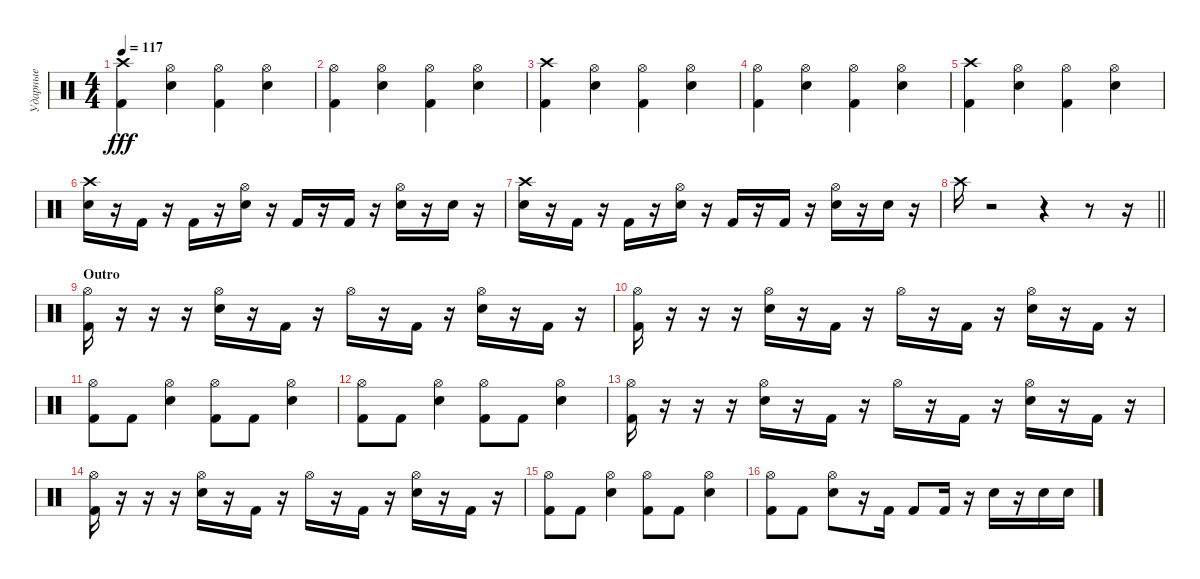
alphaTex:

\track ("Ударные" "Ударные") {instrument percussion}
\staff {score}
\articulation defaults
\ts (4 4)
\tempo 117
\clef neutral
\ks c
("Crash high (hit)" "Kick (hit) 2").4{dy fff} ("Hi-Hat (open)" "Snare (hit) 2").4 ("Hi-Hat (open)" "Kick (hit) 2").4 ("Hi-Hat (open)" "Snare (hit) 2").4 |
("Hi-Hat (open)" "Kick (hit) 2").4 ("Hi-Hat (open)" "Snare (hit) 2").4 ("Hi-Hat (open)" "Kick (hit) 2").4 ("Hi-Hat (open)" "Snare (hit) 2").4 |
("Crash high (hit)" "Kick (hit) 2").4 ("Hi-Hat (open)" "Snare (hit) 2").4 ("Hi-Hat (open)" "Kick (hit) 2").4 ("Hi-Hat (open)" "Snare (hit) 2").4 |
("Hi-Hat (open)" "Kick (hit) 2").4 ("Hi-Hat (open)" "Snare (hit) 2").4 ("Hi-Hat (open)" "Kick (hit) 2").4 ("Hi-Hat (open)" "Snare (hit) 2").4 |
("Crash high (hit)" "Kick (hit) 2").4 ("Hi-Hat (open)" "Snare (hit) 2").4 ("Hi-Hat (open)" "Kick (hit) 2").4 ("Hi-Hat (open)" "Snare (hit) 2").4 |
("Snare (hit) 2" "Crash high (hit)").16 r.16 "Kick (hit) 2".16 r.16 "Kick (hit) 2".16 r.16 ("Snare (hit) 2" "Hi-Hat (open)").16 r.16 "Kick (hit) 2".16 r.16 "Kick (hit) 2".16 r.16 ("Snare (hit) 2" "Hi-Hat (open)").16 r.16 "Snare (hit) 2".16 r.16 |
("Snare (hit) 2" "Crash high (hit)").16 r.16 "Kick (hit) 2".16 r.16 "Kick (hit) 2".16 r.16 ("Snare (hit) 2" "Hi-Hat (open)").16 r.16 "Kick (hit) 2".16 r.16 "Kick (hit) 2".16 r.16 ("Snare (hit) 2" "Hi-Hat (open)").16 r.16 "Snare (hit) 2".16 r.16 |
\barLineRight lightlight "Crash high (hit)".16
r.2 r.4 r.8 r.16 |
\section ("" "Outro")
("Kick (hit) 2" "Hi-Hat (open)").16 r.16 r.16 r.16 ("Snare (hit) 2" "Hi-Hat (open)").16 r.16 "Kick (hit) 2".16 r.16 "Hi-Hat (open)".16 r.16 "Kick (hit) 2".16 r.16 ("Snare (hit) 2" "Hi-Hat (open)").16 r.16 "Kick (hit) 2".16 r.16 |
("Kick (hit) 2" "Hi-Hat (open)").16 r.16 r.16 r.16 ("Snare (hit) 2" "Hi-Hat (open)").16 r.16 "Kick (hit) 2".16 r.16 "Hi-Hat (open)".16 r.16 "Kick (hit) 2".16 r.16 ("Snare (hit) 2" "Hi-Hat (open)").16 r.16 "Kick (hit) 2".16 r.16 |
("Hi-Hat (open)" "Kick (hit) 2").8 "Kick (hit) 2".8 ("Hi-Hat (open)" "Snare (hit) 2").4 ("Hi-Hat (open)" "Kick (hit) 2").8 "Kick (hit) 2".8 ("Hi-Hat (open)" "Snare (hit) 2").4 |
("Hi-Hat (open)" "Kick (hit) 2").8 "Kick (hit) 2".8 ("Hi-Hat (open)" "Snare (hit) 2").4 ("Hi-Hat (open)" "Kick (hit) 2").8 "Kick (hit) 2".8 ("Hi-Hat (open)" "Snare (hit) 2").4 |
("Kick (hit) 2" "Hi-Hat (open)").16 r.16 r.16 r.16 ("Snare (hit) 2" "Hi-Hat (open)").16 r.16 "Kick (hit) 2".16 r.16 "Hi-Hat (open)".16 r.16 "Kick (hit) 2".16 r.16 ("Snare (hit) 2" "Hi-Hat (open)").16 r.16 "Kick (hit) 2".16 r.16 |
("Kick (hit) 2" "Hi-Hat (open)").16 r.16 r.16 r.16 ("Snare (hit) 2" "Hi-Hat (open)").16 r.16 "Kick (hit) 2".16 r.16 "Hi-Hat (open)".16 r.16 "Kick (hit) 2".16 r.16 ("Snare (hit) 2" "Hi-Hat (open)").16 r.16 "Kick (hit) 2".16 r.16 |
("Hi-Hat (open)" "Kick (hit) 2").8 "Kick (hit) 2".8 ("Hi-Hat (open)" "Snare (hit) 2").4 ("Hi-Hat (open)" "Kick (hit) 2").8 "Kick (hit) 2".8 ("Hi-Hat (open)" "Snare (hit) 2").4 |
("Hi-Hat (open)" "Kick (hit) 2").8 "Kick (hit) 2".8 ("Hi-Hat (open)" "Snare (hit) 2").8 r.16 "Kick (hit) 2".16 "Kick (hit) 2".8 "Kick (hit) 2".16 r.16 "Snare (hit) 2".16 r.16 "Snare (hit) 2".16 "Snare (hit) 2".16
